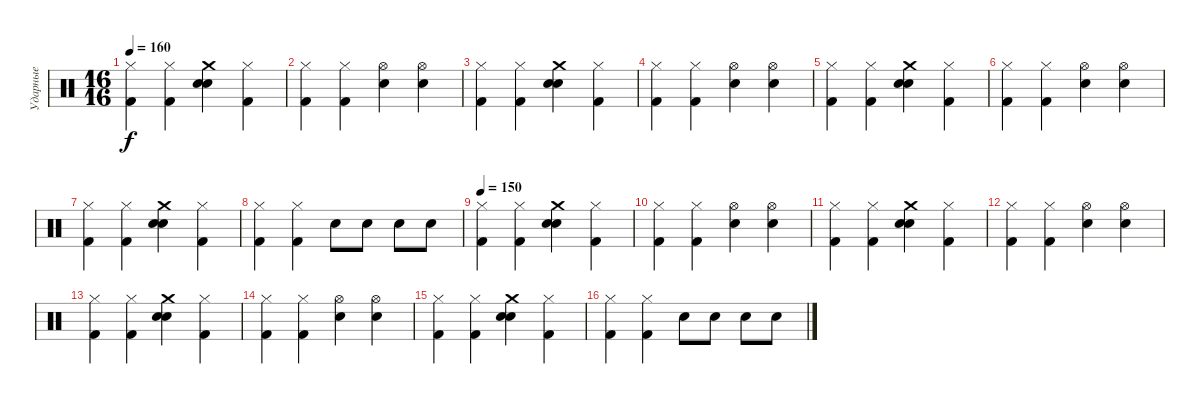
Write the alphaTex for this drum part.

\track ("Ударные" "Ударные") {instrument percussion}
\staff {score}
\articulation defaults
\ts (16 16)
\tempo 160
\clef neutral
\ks c
("Hi-Hat (closed)" "Kick (hit) 2").4{dy f} ("Hi-Hat (closed)" "Kick (hit) 2").4 ("Crash medium (hit)" "Snare (hit) 2" "Electric Snare (hit)").4 ("Hi-Hat (closed)" "Kick (hit) 2").4 |
("Hi-Hat (closed)" "Kick (hit) 2").4 ("Hi-Hat (closed)" "Kick (hit) 2").4 ("Hi-Hat (open)" "Electric Snare (hit)").4 ("Hi-Hat (open)" "Electric Snare (hit)").4 |
("Hi-Hat (closed)" "Kick (hit) 2").4 ("Hi-Hat (closed)" "Kick (hit) 2").4 ("Crash medium (hit)" "Snare (hit) 2" "Electric Snare (hit)").4 ("Hi-Hat (closed)" "Kick (hit) 2").4 |
("Hi-Hat (closed)" "Kick (hit) 2").4 ("Hi-Hat (closed)" "Kick (hit) 2").4 ("Hi-Hat (open)" "Electric Snare (hit)").4 ("Hi-Hat (open)" "Electric Snare (hit)").4 |
("Hi-Hat (closed)" "Kick (hit) 2").4 ("Hi-Hat (closed)" "Kick (hit) 2").4 ("Crash medium (hit)" "Snare (hit) 2" "Electric Snare (hit)").4 ("Hi-Hat (closed)" "Kick (hit) 2").4 |
("Hi-Hat (closed)" "Kick (hit) 2").4 ("Hi-Hat (closed)" "Kick (hit) 2").4 ("Hi-Hat (open)" "Electric Snare (hit)").4 ("Hi-Hat (open)" "Electric Snare (hit)").4 |
("Hi-Hat (closed)" "Kick (hit) 2").4 ("Hi-Hat (closed)" "Kick (hit) 2").4 ("Crash medium (hit)" "Snare (hit) 2" "Electric Snare (hit)").4 ("Hi-Hat (closed)" "Kick (hit) 2").4 |
("Hi-Hat (closed)" "Kick (hit) 2").4 ("Hi-Hat (closed)" "Kick (hit) 2").4 "Electric Snare (hit)".8 "Electric Snare (hit)".8 "Electric Snare (hit)".8 "Electric Snare (hit)".8 |
\tempo 150
("Hi-Hat (closed)" "Kick (hit) 2").4 ("Hi-Hat (closed)" "Kick (hit) 2").4 ("Crash medium (hit)" "Snare (hit) 2" "Electric Snare (hit)").4 ("Hi-Hat (closed)" "Kick (hit) 2").4 |
("Hi-Hat (closed)" "Kick (hit) 2").4 ("Hi-Hat (closed)" "Kick (hit) 2").4 ("Hi-Hat (open)" "Electric Snare (hit)").4 ("Hi-Hat (open)" "Electric Snare (hit)").4 |
("Hi-Hat (closed)" "Kick (hit) 2").4 ("Hi-Hat (closed)" "Kick (hit) 2").4 ("Crash medium (hit)" "Snare (hit) 2" "Electric Snare (hit)").4 ("Hi-Hat (closed)" "Kick (hit) 2").4 |
("Hi-Hat (closed)" "Kick (hit) 2").4 ("Hi-Hat (closed)" "Kick (hit) 2").4 ("Hi-Hat (open)" "Electric Snare (hit)").4 ("Hi-Hat (open)" "Electric Snare (hit)").4 |
("Hi-Hat (closed)" "Kick (hit) 2").4 ("Hi-Hat (closed)" "Kick (hit) 2").4 ("Crash medium (hit)" "Snare (hit) 2" "Electric Snare (hit)").4 ("Hi-Hat (closed)" "Kick (hit) 2").4 |
("Hi-Hat (closed)" "Kick (hit) 2").4 ("Hi-Hat (closed)" "Kick (hit) 2").4 ("Hi-Hat (open)" "Electric Snare (hit)").4 ("Hi-Hat (open)" "Electric Snare (hit)").4 |
("Hi-Hat (closed)" "Kick (hit) 2").4 ("Hi-Hat (closed)" "Kick (hit) 2").4 ("Crash medium (hit)" "Snare (hit) 2" "Electric Snare (hit)").4 ("Hi-Hat (closed)" "Kick (hit) 2").4 |
("Hi-Hat (closed)" "Kick (hit) 2").4 ("Hi-Hat (closed)" "Kick (hit) 2").4 "Electric Snare (hit)".8 "Electric Snare (hit)".8 "Electric Snare (hit)".8 "Electric Snare (hit)".8
